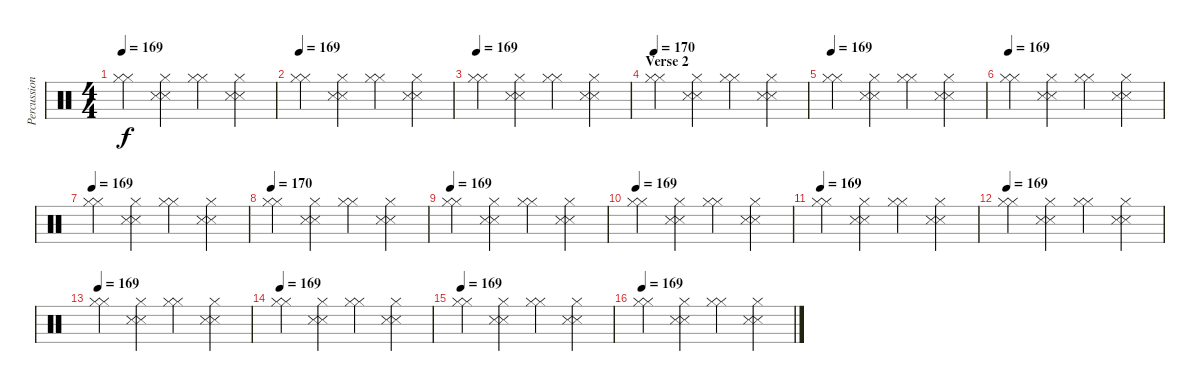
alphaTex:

\track ("Percussion" "Percussion") {instrument percussion}
\staff {score}
\articulation defaults
\ts (4 4)
\tempo 169
\clef neutral
\ks c
("Hi-Hat (closed)" "Hi-Hat (closed)").4{dy f} ("Hi-Hat (closed)" "Snare (side stick) 3" "Snare (side stick) 3").4 ("Hi-Hat (closed)" "Hi-Hat (closed)").4 ("Hi-Hat (closed)" "Snare (side stick) 3" "Snare (side stick) 3").4 |
\tempo 169
("Hi-Hat (closed)" "Hi-Hat (closed)").4 ("Hi-Hat (closed)" "Snare (side stick) 3" "Snare (side stick) 3").4 ("Hi-Hat (closed)" "Hi-Hat (closed)").4 ("Hi-Hat (closed)" "Snare (side stick) 3" "Snare (side stick) 3").4 |
\tempo 169
("Hi-Hat (closed)" "Hi-Hat (closed)").4 ("Hi-Hat (closed)" "Snare (side stick) 3" "Snare (side stick) 3").4 ("Hi-Hat (closed)" "Hi-Hat (closed)").4 ("Hi-Hat (closed)" "Snare (side stick) 3" "Snare (side stick) 3").4 |
\section ("" "Verse 2")
\tempo 169
\tempo 170
("Hi-Hat (closed)" "Hi-Hat (closed)").4 ("Hi-Hat (closed)" "Snare (side stick) 3" "Snare (side stick) 3").4 ("Hi-Hat (closed)" "Hi-Hat (closed)").4 ("Hi-Hat (closed)" "Snare (side stick) 3" "Snare (side stick) 3").4 |
\tempo 169
("Hi-Hat (closed)" "Hi-Hat (closed)").4 ("Hi-Hat (closed)" "Snare (side stick) 3" "Snare (side stick) 3").4 ("Hi-Hat (closed)" "Hi-Hat (closed)").4 ("Hi-Hat (closed)" "Snare (side stick) 3" "Snare (side stick) 3").4 |
\tempo 169
("Hi-Hat (closed)" "Hi-Hat (closed)").4 ("Hi-Hat (closed)" "Snare (side stick) 3" "Snare (side stick) 3").4 ("Hi-Hat (closed)" "Hi-Hat (closed)").4 ("Hi-Hat (closed)" "Snare (side stick) 3" "Snare (side stick) 3").4 |
\tempo 169
("Hi-Hat (closed)" "Hi-Hat (closed)").4 ("Hi-Hat (closed)" "Snare (side stick) 3" "Snare (side stick) 3").4 ("Hi-Hat (closed)" "Hi-Hat (closed)").4 ("Hi-Hat (closed)" "Snare (side stick) 3" "Snare (side stick) 3").4 |
\tempo 169
\tempo 170
("Hi-Hat (closed)" "Hi-Hat (closed)").4 ("Hi-Hat (closed)" "Snare (side stick) 3" "Snare (side stick) 3").4 ("Hi-Hat (closed)" "Hi-Hat (closed)").4 ("Hi-Hat (closed)" "Snare (side stick) 3" "Snare (side stick) 3").4 |
\tempo 169
("Hi-Hat (closed)" "Hi-Hat (closed)").4 ("Hi-Hat (closed)" "Snare (side stick) 3" "Snare (side stick) 3").4 ("Hi-Hat (closed)" "Hi-Hat (closed)").4 ("Hi-Hat (closed)" "Snare (side stick) 3" "Snare (side stick) 3").4 |
\tempo 169
("Hi-Hat (closed)" "Hi-Hat (closed)").4 ("Hi-Hat (closed)" "Snare (side stick) 3" "Snare (side stick) 3").4 ("Hi-Hat (closed)" "Hi-Hat (closed)").4 ("Hi-Hat (closed)" "Snare (side stick) 3" "Snare (side stick) 3").4 |
\tempo 169
("Hi-Hat (closed)" "Hi-Hat (closed)").4 ("Hi-Hat (closed)" "Snare (side stick) 3" "Snare (side stick) 3").4 ("Hi-Hat (closed)" "Hi-Hat (closed)").4 ("Hi-Hat (closed)" "Snare (side stick) 3" "Snare (side stick) 3").4 |
\tempo 169
("Hi-Hat (closed)" "Hi-Hat (closed)").4 ("Hi-Hat (closed)" "Snare (side stick) 3" "Snare (side stick) 3").4 ("Hi-Hat (closed)" "Hi-Hat (closed)").4 ("Hi-Hat (closed)" "Snare (side stick) 3" "Snare (side stick) 3").4 |
\tempo 169
("Hi-Hat (closed)" "Hi-Hat (closed)").4 ("Hi-Hat (closed)" "Snare (side stick) 3" "Snare (side stick) 3").4 ("Hi-Hat (closed)" "Hi-Hat (closed)").4 ("Hi-Hat (closed)" "Snare (side stick) 3" "Snare (side stick) 3").4 |
\tempo 169
("Hi-Hat (closed)" "Hi-Hat (closed)").4 ("Hi-Hat (closed)" "Snare (side stick) 3" "Snare (side stick) 3").4 ("Hi-Hat (closed)" "Hi-Hat (closed)").4 ("Hi-Hat (closed)" "Snare (side stick) 3" "Snare (side stick) 3").4 |
\tempo 169
("Hi-Hat (closed)" "Hi-Hat (closed)").4 ("Hi-Hat (closed)" "Snare (side stick) 3" "Snare (side stick) 3").4 ("Hi-Hat (closed)" "Hi-Hat (closed)").4 ("Hi-Hat (closed)" "Snare (side stick) 3" "Snare (side stick) 3").4 |
\tempo 169
("Hi-Hat (closed)" "Hi-Hat (closed)").4 ("Hi-Hat (closed)" "Snare (side stick) 3" "Snare (side stick) 3").4 ("Hi-Hat (closed)" "Hi-Hat (closed)").4 ("Hi-Hat (closed)" "Snare (side stick) 3" "Snare (side stick) 3").4
